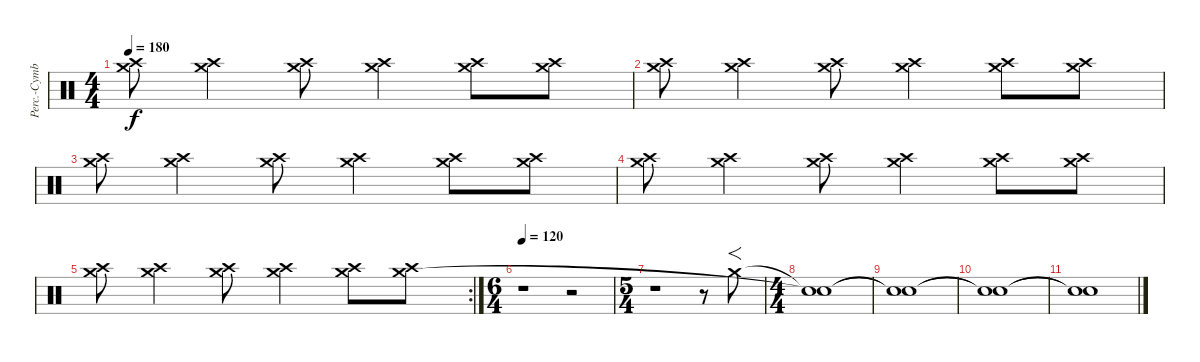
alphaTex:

\track ("Perc.-Cymbals 1" "Perc.-Cymb") {instrument percussion}
\staff {score}
\articulation defaults
\ts (4 4)
\tempo 180
\clef neutral
\ks c
("Crash high (hit)" "Crash medium (hit)").8{dy f} ("Crash high (hit)" "Crash medium (hit)").4 ("Crash high (hit)" "Crash medium (hit)").8 ("Crash high (hit)" "Crash medium (hit)").4 ("Crash high (hit)" "Crash medium (hit)").8 ("Crash high (hit)" "Crash medium (hit)").8 |
("Crash high (hit)" "Crash medium (hit)").8 ("Crash high (hit)" "Crash medium (hit)").4 ("Crash high (hit)" "Crash medium (hit)").8 ("Crash high (hit)" "Crash medium (hit)").4 ("Crash high (hit)" "Crash medium (hit)").8 ("Crash high (hit)" "Crash medium (hit)").8 |
("Crash high (hit)" "Crash medium (hit)").8 ("Crash high (hit)" "Crash medium (hit)").4 ("Crash high (hit)" "Crash medium (hit)").8 ("Crash high (hit)" "Crash medium (hit)").4 ("Crash high (hit)" "Crash medium (hit)").8 ("Crash high (hit)" "Crash medium (hit)").8 |
("Crash high (hit)" "Crash medium (hit)").8 ("Crash high (hit)" "Crash medium (hit)").4 ("Crash high (hit)" "Crash medium (hit)").8 ("Crash high (hit)" "Crash medium (hit)").4 ("Crash high (hit)" "Crash medium (hit)").8 ("Crash high (hit)" "Crash medium (hit)").8 |
\rc 2
("Crash high (hit)" "Crash medium (hit)").8 ("Crash high (hit)" "Crash medium (hit)").4 ("Crash high (hit)" "Crash medium (hit)").8 ("Crash high (hit)" "Crash medium (hit)").4 ("Crash high (hit)" "Crash medium (hit)").8 ("Crash high (hit)" "Crash medium (hit)").8 |
\ts (6 4)
\tempo 120
r.1 r.2 |
\ts (5 4)
r.1 r.8 "Crash medium (hit)".8{f} |
\ts (4 4)
("Snare (hit)"{t} "Snare (hit)"{t}).1 |
("Snare (hit)"{t} "Snare (hit)"{t}).1{volume 0} |
("Snare (hit)"{t} "Snare (hit)"{t}).1 |
("Snare (hit)"{t} "Snare (hit)"{t}).1
